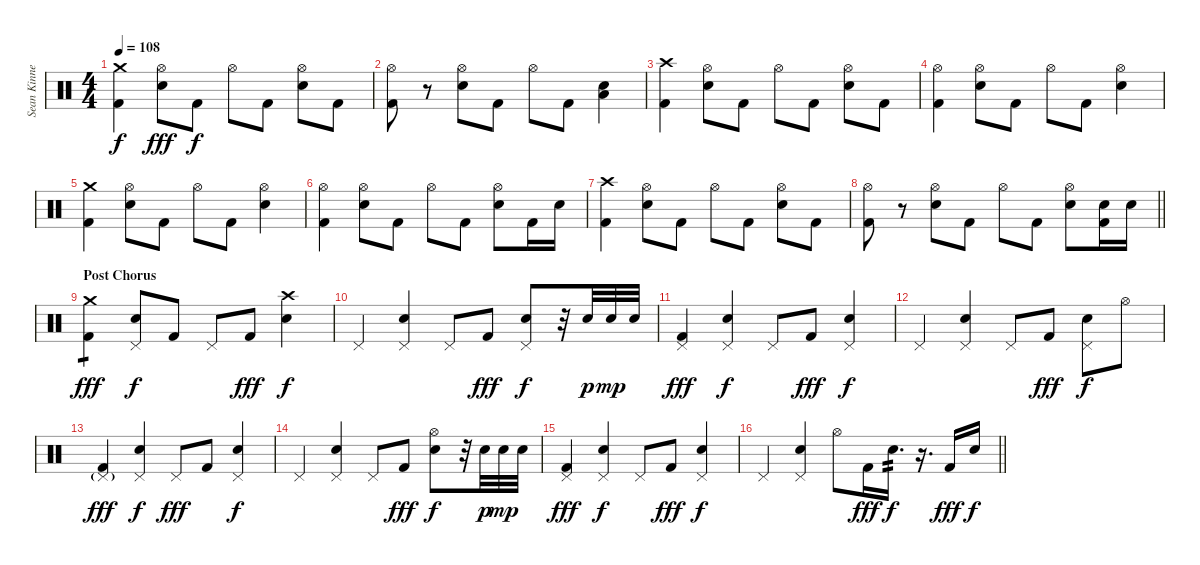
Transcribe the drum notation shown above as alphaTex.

\track ("Sean Kinney" "Sean Kinne") {instrument percussion}
\staff {score}
\articulation defaults
\ts (4 4)
\tempo 108
\clef neutral
\ks c
("Crash medium (hit)" "Kick (hit) 2").4{dy f} ("Hi-Hat (open)" "Snare (hit) 2").8{dy fff} "Kick (hit) 2".8{dy f} "Hi-Hat (open)".8 "Kick (hit) 2".8 ("Hi-Hat (open)" "Snare (hit) 2").8 "Kick (hit) 2".8 |
("Hi-Hat (open)" "Kick (hit) 2").8 r.8 ("Hi-Hat (open)" "Snare (hit) 2").8 "Kick (hit) 2".8 "Hi-Hat (open)".8 "Kick (hit) 2".8 ("Low Tom (hit)" "Snare (hit) 2").4 |
("Crash high (hit)" "Kick (hit) 2").4 ("Hi-Hat (open)" "Snare (hit) 2").8 "Kick (hit) 2".8 "Hi-Hat (open)".8 "Kick (hit) 2".8 ("Hi-Hat (open)" "Snare (hit) 2").8 "Kick (hit) 2".8 |
("Hi-Hat (open)" "Kick (hit) 2").4 ("Hi-Hat (open)" "Snare (hit) 2").8 "Kick (hit) 2".8 "Hi-Hat (open)".8 "Kick (hit) 2".8 ("Hi-Hat (open)" "Snare (hit) 2").4 |
("Crash medium (hit)" "Kick (hit) 2").4 ("Hi-Hat (open)" "Snare (hit) 2").8 "Kick (hit) 2".8 "Hi-Hat (open)".8 "Kick (hit) 2".8 ("Hi-Hat (open)" "Snare (hit) 2").4 |
("Hi-Hat (open)" "Kick (hit) 2").4 ("Hi-Hat (open)" "Snare (hit) 2").8 "Kick (hit) 2".8 "Hi-Hat (open)".8 "Kick (hit) 2".8 ("Hi-Hat (open)" "Snare (hit) 2").8 "Kick (hit) 2".16 "Snare (hit) 2".16 |
("Crash high (hit)" "Kick (hit) 2").4 ("Hi-Hat (open)" "Snare (hit) 2").8 "Kick (hit) 2".8 "Hi-Hat (open)".8 "Kick (hit) 2".8 ("Hi-Hat (open)" "Snare (hit) 2").8 "Kick (hit) 2".8 |
\barLineRight lightlight
("Hi-Hat (open)" "Kick (hit) 2").8 r.8 ("Hi-Hat (open)" "Snare (hit) 2").8 "Kick (hit) 2".8 "Hi-Hat (open)".8 "Kick (hit) 2".8 ("Hi-Hat (open)" "Snare (hit) 2").8 ("Snare (hit) 2" "Kick (hit) 2").16 "Snare (hit) 2".16 |
\section ("" "Post Chorus")
("Crash medium (hit)" "Kick (hit) 2").4{tp 1 dy fff} ("Pedal Hi-Hat (hit)" "Snare (hit) 2").8{dy f} "Kick (hit) 2".8 "Pedal Hi-Hat (hit)".8 "Kick (hit) 2".8{dy fff} ("Crash high (hit)" "Snare (hit) 2").4{dy f} |
"Pedal Hi-Hat (hit)".4 ("Pedal Hi-Hat (hit)" "Snare (hit) 2").4 "Pedal Hi-Hat (hit)".8 "Kick (hit) 2".8{dy fff} ("Pedal Hi-Hat (hit)" "Snare (hit) 2").8{dy f} r.32 "Snare (hit) 2".32{dy p} "Snare (hit) 2".32{dy mp} "Snare (hit) 2".32 |
("Pedal Hi-Hat (hit)" "Kick (hit) 2").4{dy fff} ("Pedal Hi-Hat (hit)" "Snare (hit) 2").4{dy f} "Pedal Hi-Hat (hit)".8 "Kick (hit) 2".8{dy fff} ("Pedal Hi-Hat (hit)" "Snare (hit) 2").4{dy f} |
"Pedal Hi-Hat (hit)".4 ("Pedal Hi-Hat (hit)" "Snare (hit) 2").4 "Pedal Hi-Hat (hit)".8 "Kick (hit) 2".8{dy fff} ("Pedal Hi-Hat (hit)" "Snare (hit) 2").8{dy f} "Hi-Hat (open)".8 |
("Pedal Hi-Hat (hit)"{g} "Kick (hit) 2").4{dy fff} ("Pedal Hi-Hat (hit)" "Snare (hit) 2").4{dy f} "Pedal Hi-Hat (hit)".8{dy fff} "Kick (hit) 2".8 ("Pedal Hi-Hat (hit)" "Snare (hit) 2").4{dy f} |
"Pedal Hi-Hat (hit)".4 ("Pedal Hi-Hat (hit)" "Snare (hit) 2").4 "Pedal Hi-Hat (hit)".8 "Kick (hit) 2".8{dy fff} ("Hi-Hat (open)" "Snare (hit) 2").8{dy f} r.32 "Snare (hit) 2".32{dy p} "Snare (hit) 2".32{dy mp} "Snare (hit) 2".32 |
("Pedal Hi-Hat (hit)" "Kick (hit) 2").4{dy fff} ("Pedal Hi-Hat (hit)" "Snare (hit) 2").4{dy f} "Pedal Hi-Hat (hit)".8 "Kick (hit) 2".8{dy fff} ("Pedal Hi-Hat (hit)" "Snare (hit) 2").4{dy f} |
\barLineRight lightlight "Pedal Hi-Hat (hit)".4
("Pedal Hi-Hat (hit)" "Snare (hit) 2").4 "Hi-Hat (open)".8 "Kick (hit) 2".16{dy fff} "Snare (hit) 2".16{d tp 2 dy f} r.16{d} "Kick (hit) 2".16{dy fff} "Snare (hit) 2".16{dy f}
